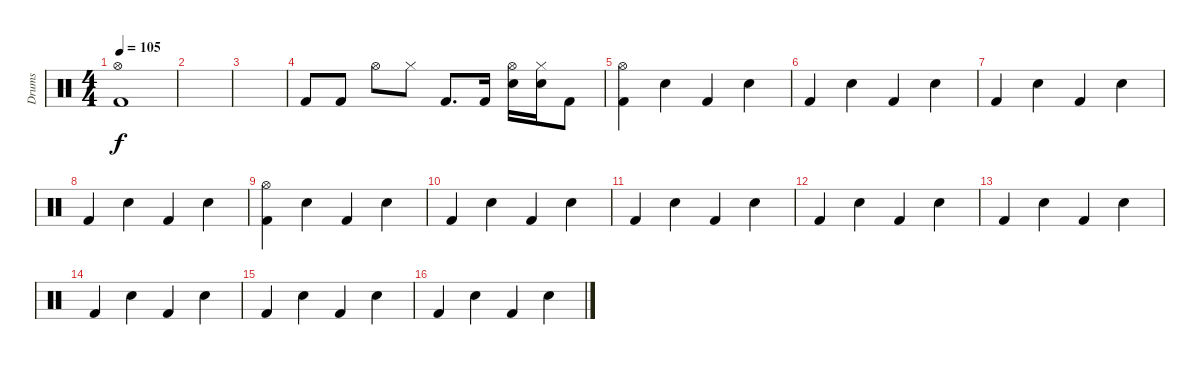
\track ("Drums" "Drums") {instrument percussion}
\staff {score}
\articulation defaults
\ts (4 4)
\tempo 105
\clef neutral
\ks c
("Kick (hit) 2" "Hi-Hat (open)").1{dy f} |
|
|
"Kick (hit) 2".8 "Kick (hit) 2".8 "Hi-Hat (open)".8 "Hi-Hat (closed)".8 "Kick (hit) 2".8{d} "Kick (hit) 2".16 ("Hi-Hat (open)" "Snare (hit) 2").16 ("Hi-Hat (closed)" "Electric Snare (hit)").16 "Kick (hit) 2".8 |
("Kick (hit) 2" "Hi-Hat (open)").4 "Electric Snare (hit)".4 "Kick (hit) 2".4 "Electric Snare (hit)".4 |
"Kick (hit) 2".4 "Electric Snare (hit)".4 "Kick (hit) 2".4 "Electric Snare (hit)".4 |
"Kick (hit) 2".4 "Electric Snare (hit)".4 "Kick (hit) 2".4 "Electric Snare (hit)".4 |
"Kick (hit) 2".4 "Electric Snare (hit)".4 "Kick (hit) 2".4 "Electric Snare (hit)".4 |
("Kick (hit) 2" "Hi-Hat (open)").4 "Electric Snare (hit)".4 "Kick (hit) 2".4 "Electric Snare (hit)".4 |
"Kick (hit) 2".4 "Electric Snare (hit)".4 "Kick (hit) 2".4 "Electric Snare (hit)".4 |
"Kick (hit) 2".4 "Electric Snare (hit)".4 "Kick (hit) 2".4 "Electric Snare (hit)".4 |
"Kick (hit) 2".4 "Electric Snare (hit)".4 "Kick (hit) 2".4 "Electric Snare (hit)".4 |
"Kick (hit) 2".4 "Electric Snare (hit)".4 "Kick (hit) 2".4 "Electric Snare (hit)".4 |
"Kick (hit) 2".4 "Electric Snare (hit)".4 "Kick (hit) 2".4 "Electric Snare (hit)".4 |
"Kick (hit) 2".4 "Electric Snare (hit)".4 "Kick (hit) 2".4 "Electric Snare (hit)".4 |
"Kick (hit) 2".4 "Electric Snare (hit)".4 "Kick (hit) 2".4 "Electric Snare (hit)".4
